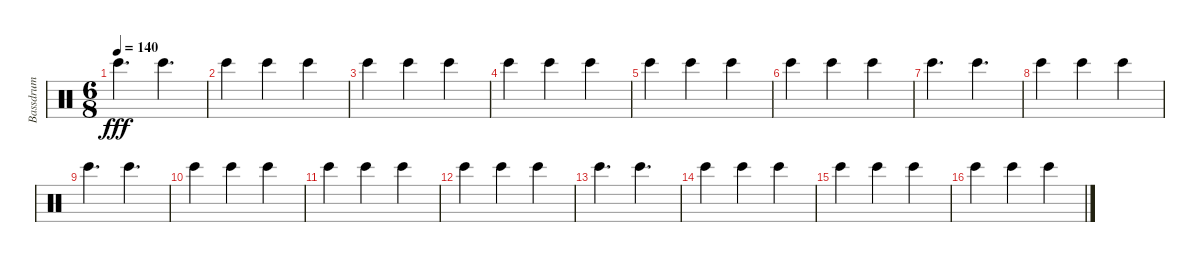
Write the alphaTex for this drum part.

\track ("Bassdrum" "Bassdrum") {instrument percussion}
\staff {score}
\articulation defaults
\ts (6 8)
\tempo 140
\clef neutral
\ks c "Bongo High (hit)".4{d dy fff} "Bongo High (hit)".4{d}
|
"Bongo High (hit)".4 "Bongo High (hit)".4 "Bongo High (hit)".4 |
"Bongo High (hit)".4 "Bongo High (hit)".4 "Bongo High (hit)".4 |
"Bongo High (hit)".4 "Bongo High (hit)".4 "Bongo High (hit)".4 |
"Bongo High (hit)".4 "Bongo High (hit)".4 "Bongo High (hit)".4 |
"Bongo High (hit)".4 "Bongo High (hit)".4 "Bongo High (hit)".4 |
"Bongo High (hit)".4{d} "Bongo High (hit)".4{d} |
"Bongo High (hit)".4 "Bongo High (hit)".4 "Bongo High (hit)".4 |
"Bongo High (hit)".4{d} "Bongo High (hit)".4{d} |
"Bongo High (hit)".4 "Bongo High (hit)".4 "Bongo High (hit)".4 |
"Bongo High (hit)".4 "Bongo High (hit)".4 "Bongo High (hit)".4 |
"Bongo High (hit)".4 "Bongo High (hit)".4 "Bongo High (hit)".4 |
"Bongo High (hit)".4{d} "Bongo High (hit)".4{d} |
"Bongo High (hit)".4 "Bongo High (hit)".4 "Bongo High (hit)".4 |
"Bongo High (hit)".4 "Bongo High (hit)".4 "Bongo High (hit)".4 |
"Bongo High (hit)".4 "Bongo High (hit)".4 "Bongo High (hit)".4
